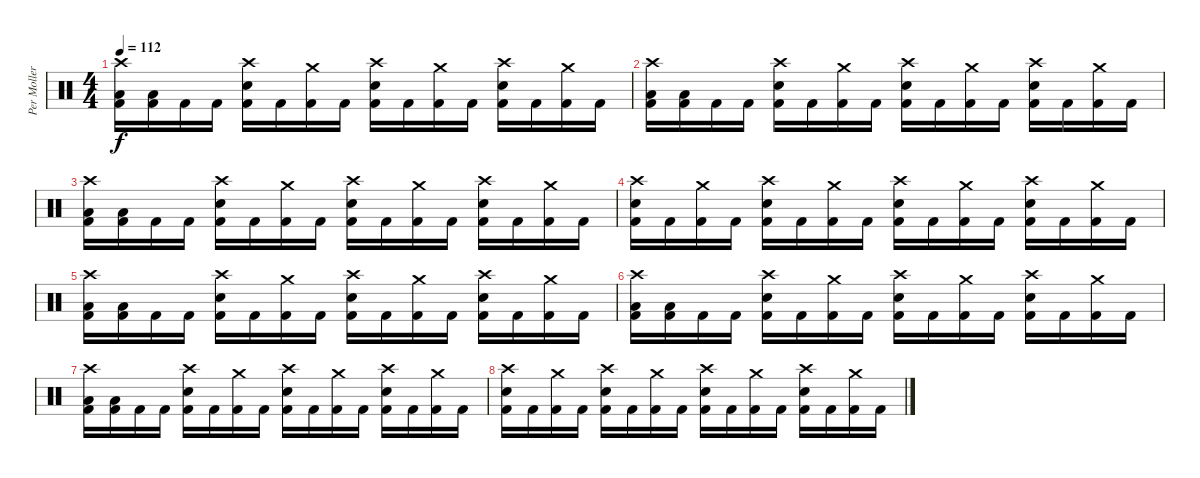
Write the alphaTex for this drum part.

\track ("Per Moller Jensen" "Per Moller") {instrument percussion}
\staff {score}
\articulation defaults
\ts (4 4)
\tempo 112
\clef neutral
\ks c
("Crash high (hit)" "Low Floor Tom (hit)" "Kick (hit) 2").16{dy f} ("Low Floor Tom (hit)" "Kick (hit) 2").16 "Kick (hit) 2".16 "Kick (hit) 2".16 ("Crash high (hit)" "Electric Snare (hit)" "Kick (hit) 2").16 "Kick (hit) 2".16 ("Crash medium (hit)" "Kick (hit) 2").16 "Kick (hit) 2".16 ("Crash high (hit)" "Electric Snare (hit)" "Kick (hit) 2").16 "Kick (hit) 2".16 ("Crash medium (hit)" "Kick (hit) 2").16 "Kick (hit) 2".16 ("Crash high (hit)" "Electric Snare (hit)" "Kick (hit) 2").16 "Kick (hit) 2".16 ("Crash medium (hit)" "Kick (hit) 2").16 "Kick (hit) 2".16 |
("Crash high (hit)" "Low Floor Tom (hit)" "Kick (hit) 2").16 ("Low Floor Tom (hit)" "Kick (hit) 2").16 "Kick (hit) 2".16 "Kick (hit) 2".16 ("Crash high (hit)" "Electric Snare (hit)" "Kick (hit) 2").16 "Kick (hit) 2".16 ("Crash medium (hit)" "Kick (hit) 2").16 "Kick (hit) 2".16 ("Crash high (hit)" "Electric Snare (hit)" "Kick (hit) 2").16 "Kick (hit) 2".16 ("Crash medium (hit)" "Kick (hit) 2").16 "Kick (hit) 2".16 ("Crash high (hit)" "Electric Snare (hit)" "Kick (hit) 2").16 "Kick (hit) 2".16 ("Crash medium (hit)" "Kick (hit) 2").16 "Kick (hit) 2".16 |
("Crash high (hit)" "Low Floor Tom (hit)" "Kick (hit) 2").16 ("Low Floor Tom (hit)" "Kick (hit) 2").16 "Kick (hit) 2".16 "Kick (hit) 2".16 ("Crash high (hit)" "Electric Snare (hit)" "Kick (hit) 2").16 "Kick (hit) 2".16 ("Crash medium (hit)" "Kick (hit) 2").16 "Kick (hit) 2".16 ("Crash high (hit)" "Electric Snare (hit)" "Kick (hit) 2").16 "Kick (hit) 2".16 ("Crash medium (hit)" "Kick (hit) 2").16 "Kick (hit) 2".16 ("Crash high (hit)" "Electric Snare (hit)" "Kick (hit) 2").16 "Kick (hit) 2".16 ("Crash medium (hit)" "Kick (hit) 2").16 "Kick (hit) 2".16 |
("Crash high (hit)" "Electric Snare (hit)" "Kick (hit) 2").16 "Kick (hit) 2".16 ("Crash medium (hit)" "Kick (hit) 2").16 "Kick (hit) 2".16 ("Crash high (hit)" "Electric Snare (hit)" "Kick (hit) 2").16 "Kick (hit) 2".16 ("Crash medium (hit)" "Kick (hit) 2").16 "Kick (hit) 2".16 ("Crash high (hit)" "Electric Snare (hit)" "Kick (hit) 2").16 "Kick (hit) 2".16 ("Crash medium (hit)" "Kick (hit) 2").16 "Kick (hit) 2".16 ("Crash high (hit)" "Electric Snare (hit)" "Kick (hit) 2").16 "Kick (hit) 2".16 ("Crash medium (hit)" "Kick (hit) 2").16 "Kick (hit) 2".16 |
("Crash high (hit)" "Low Floor Tom (hit)" "Kick (hit) 2").16 ("Low Floor Tom (hit)" "Kick (hit) 2").16 "Kick (hit) 2".16 "Kick (hit) 2".16 ("Crash high (hit)" "Electric Snare (hit)" "Kick (hit) 2").16 "Kick (hit) 2".16 ("Crash medium (hit)" "Kick (hit) 2").16 "Kick (hit) 2".16 ("Crash high (hit)" "Electric Snare (hit)" "Kick (hit) 2").16 "Kick (hit) 2".16 ("Crash medium (hit)" "Kick (hit) 2").16 "Kick (hit) 2".16 ("Crash high (hit)" "Electric Snare (hit)" "Kick (hit) 2").16 "Kick (hit) 2".16 ("Crash medium (hit)" "Kick (hit) 2").16 "Kick (hit) 2".16 |
("Crash high (hit)" "Low Floor Tom (hit)" "Kick (hit) 2").16 ("Low Floor Tom (hit)" "Kick (hit) 2").16 "Kick (hit) 2".16 "Kick (hit) 2".16 ("Crash high (hit)" "Electric Snare (hit)" "Kick (hit) 2").16 "Kick (hit) 2".16 ("Crash medium (hit)" "Kick (hit) 2").16 "Kick (hit) 2".16 ("Crash high (hit)" "Electric Snare (hit)" "Kick (hit) 2").16 "Kick (hit) 2".16 ("Crash medium (hit)" "Kick (hit) 2").16 "Kick (hit) 2".16 ("Crash high (hit)" "Electric Snare (hit)" "Kick (hit) 2").16 "Kick (hit) 2".16 ("Crash medium (hit)" "Kick (hit) 2").16 "Kick (hit) 2".16 |
("Crash high (hit)" "Low Floor Tom (hit)" "Kick (hit) 2").16 ("Low Floor Tom (hit)" "Kick (hit) 2").16 "Kick (hit) 2".16 "Kick (hit) 2".16 ("Crash high (hit)" "Electric Snare (hit)" "Kick (hit) 2").16 "Kick (hit) 2".16 ("Crash medium (hit)" "Kick (hit) 2").16 "Kick (hit) 2".16 ("Crash high (hit)" "Electric Snare (hit)" "Kick (hit) 2").16 "Kick (hit) 2".16 ("Crash medium (hit)" "Kick (hit) 2").16 "Kick (hit) 2".16 ("Crash high (hit)" "Electric Snare (hit)" "Kick (hit) 2").16 "Kick (hit) 2".16 ("Crash medium (hit)" "Kick (hit) 2").16 "Kick (hit) 2".16 |
("Crash high (hit)" "Electric Snare (hit)" "Kick (hit) 2").16 "Kick (hit) 2".16 ("Crash medium (hit)" "Kick (hit) 2").16 "Kick (hit) 2".16 ("Crash high (hit)" "Electric Snare (hit)" "Kick (hit) 2").16 "Kick (hit) 2".16 ("Crash medium (hit)" "Kick (hit) 2").16 "Kick (hit) 2".16 ("Crash high (hit)" "Electric Snare (hit)" "Kick (hit) 2").16 "Kick (hit) 2".16 ("Crash medium (hit)" "Kick (hit) 2").16 "Kick (hit) 2".16 ("Crash high (hit)" "Electric Snare (hit)" "Kick (hit) 2").16 "Kick (hit) 2".16 ("Crash medium (hit)" "Kick (hit) 2").16 "Kick (hit) 2".16
